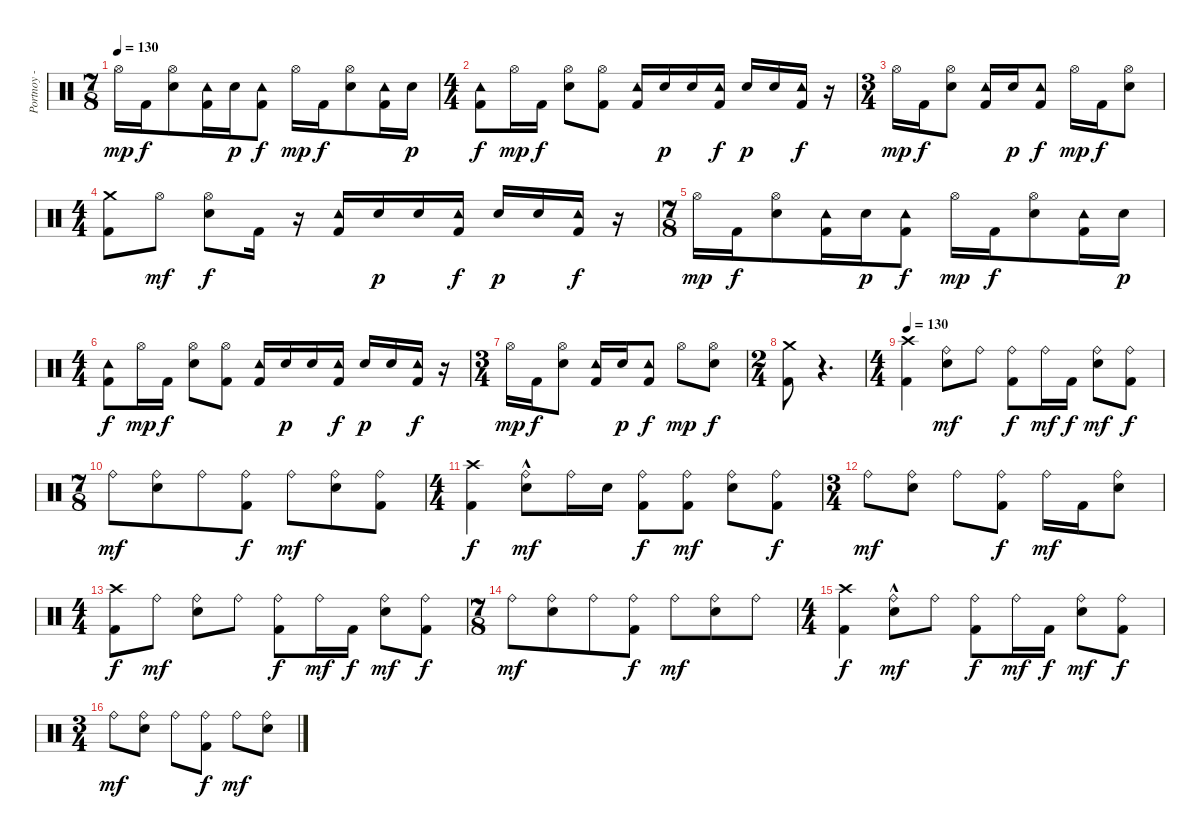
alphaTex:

\track ("Portnoy - Drums" "Portnoy - ") {instrument percussion}
\staff {score}
\articulation defaults
\ts (7 8)
\tempo 130
\clef neutral
\ks c "Hi-Hat (open)".16{dy mp} "Kick (hit) 2".16{dy f}
("Electric Snare (hit)" "Hi-Hat (open)").8 ("Kick (hit) 2" "Tambourine (hit)").16 "Electric Snare (hit)".16{dy p} ("Kick (hit) 2" "Tambourine (hit)").8{dy f} "Hi-Hat (open)".16{dy mp} "Kick (hit) 2".16{dy f} ("Electric Snare (hit)" "Hi-Hat (open)").8 ("Kick (hit) 2" "Tambourine (hit)").16 "Electric Snare (hit)".16{dy p} |
\ts (4 4)
("Kick (hit) 2" "Tambourine (hit)").8{dy f} "Hi-Hat (open)".16{dy mp} "Kick (hit) 2".16{dy f} ("Electric Snare (hit)" "Hi-Hat (open)").8 ("Kick (hit) 2" "Hi-Hat (open)").8 ("Kick (hit) 2" "Tambourine (hit)").16 "Electric Snare (hit)".16{dy p} "Electric Snare (hit)".16 ("Kick (hit) 2" "Tambourine (hit)").16{dy f} "Electric Snare (hit)".16{dy p} "Electric Snare (hit)".16 ("Kick (hit) 2" "Tambourine (hit)").16{dy f} r.16 |
\ts (3 4)
"Hi-Hat (open)".16{dy mp} "Kick (hit) 2".16{dy f} ("Electric Snare (hit)" "Hi-Hat (open)").8 ("Kick (hit) 2" "Tambourine (hit)").16 "Electric Snare (hit)".16{dy p} ("Kick (hit) 2" "Tambourine (hit)").8{dy f} "Hi-Hat (open)".16{dy mp} "Kick (hit) 2".16{dy f} ("Electric Snare (hit)" "Hi-Hat (open)").8 |
\ts (4 4)
("Crash medium (hit)" "Kick (hit) 2").8 "Hi-Hat (open)".8{dy mf} ("Electric Snare (hit)" "Hi-Hat (open)").8{dy f} "Kick (hit) 2".16 r.16 ("Kick (hit) 2" "Tambourine (hit)").16 "Electric Snare (hit)".16{dy p} "Electric Snare (hit)".16 ("Kick (hit) 2" "Tambourine (hit)").16{dy f} "Electric Snare (hit)".16{dy p} "Electric Snare (hit)".16 ("Kick (hit) 2" "Tambourine (hit)").16{dy f} r.16 |
\ts (7 8)
"Hi-Hat (open)".16{dy mp} "Kick (hit) 2".16{dy f} ("Electric Snare (hit)" "Hi-Hat (open)").8 ("Kick (hit) 2" "Tambourine (hit)").16 "Electric Snare (hit)".16{dy p} ("Kick (hit) 2" "Tambourine (hit)").8{dy f} "Hi-Hat (open)".16{dy mp} "Kick (hit) 2".16{dy f} ("Electric Snare (hit)" "Hi-Hat (open)").8 ("Kick (hit) 2" "Tambourine (hit)").16 "Electric Snare (hit)".16{dy p} |
\ts (4 4)
("Kick (hit) 2" "Tambourine (hit)").8{dy f} "Hi-Hat (open)".16{dy mp} "Kick (hit) 2".16{dy f} ("Electric Snare (hit)" "Hi-Hat (open)").8 ("Kick (hit) 2" "Hi-Hat (open)").8 ("Kick (hit) 2" "Tambourine (hit)").16 "Electric Snare (hit)".16{dy p} "Electric Snare (hit)".16 ("Kick (hit) 2" "Tambourine (hit)").16{dy f} "Electric Snare (hit)".16{dy p} "Electric Snare (hit)".16 ("Kick (hit) 2" "Tambourine (hit)").16{dy f} r.16 |
\ts (3 4)
"Hi-Hat (open)".16{dy mp} "Kick (hit) 2".16{dy f} ("Electric Snare (hit)" "Hi-Hat (open)").8 ("Kick (hit) 2" "Tambourine (hit)").16 "Electric Snare (hit)".16{dy p} ("Kick (hit) 2" "Tambourine (hit)").8{dy f} "Hi-Hat (open)".8{dy mp} ("Electric Snare (hit)" "Hi-Hat (open)").8{dy f} |
\ts (2 4)
("Kick (hit) 2" "Crash medium (hit)").8 r.4{d} |
\ts (4 4)
\tempo 130
("Kick (hit) 2" "Crash high (hit)").4{volume 11} ("Electric Snare (hit)" "Ride (bell)").8{dy mf} "Ride (bell)".8 ("Kick (hit) 2" "Ride (bell)").8{dy f} "Ride (bell)".16{dy mf} "Kick (hit) 2".16{dy f} ("Electric Snare (hit)" "Ride (bell)").8{dy mf} ("Kick (hit) 2" "Ride (bell)").8{dy f} |
\ts (7 8)
"Ride (bell)".8{dy mf} ("Electric Snare (hit)" "Ride (bell)").8 "Ride (bell)".8 ("Kick (hit) 2" "Ride (bell)").8{dy f} "Ride (bell)".8{dy mf} ("Electric Snare (hit)" "Ride (bell)").8 ("Kick (hit) 2" "Ride (bell)").8 |
\ts (4 4)
("Crash high (hit)" "Kick (hit) 2").4{dy f} ("Ride (bell)" "Electric Snare (hit)"{hac}).8{dy mf} "Ride (bell)".16 "Electric Snare (hit)".16 ("Ride (bell)" "Kick (hit) 2").8{dy f} ("Ride (bell)" "Kick (hit) 2").8{dy mf} ("Electric Snare (hit)" "Ride (bell)").8 ("Kick (hit) 2" "Ride (bell)").8{dy f} |
\ts (3 4)
"Ride (bell)".8{dy mf} ("Electric Snare (hit)" "Ride (bell)").8 "Ride (bell)".8 ("Kick (hit) 2" "Ride (bell)").8{dy f} "Ride (bell)".16{dy mf} "Kick (hit) 2".16 ("Electric Snare (hit)" "Ride (bell)").8 |
\ts (4 4)
("Crash high (hit)" "Kick (hit) 2").8{dy f} "Ride (bell)".8{dy mf} ("Electric Snare (hit)" "Ride (bell)").8 "Ride (bell)".8 ("Kick (hit) 2" "Ride (bell)").8{dy f} "Ride (bell)".16{dy mf} "Kick (hit) 2".16{dy f} ("Electric Snare (hit)" "Ride (bell)").8{dy mf} ("Kick (hit) 2" "Ride (bell)").8{dy f} |
\ts (7 8)
"Ride (bell)".8{dy mf} ("Electric Snare (hit)" "Ride (bell)").8 "Ride (bell)".8 ("Kick (hit) 2" "Ride (bell)").8{dy f} "Ride (bell)".8{dy mf} ("Electric Snare (hit)" "Ride (bell)").8 "Ride (bell)".8 |
\ts (4 4)
("Crash high (hit)" "Kick (hit) 2").4{dy f} ("Ride (bell)" "Electric Snare (hit)"{hac}).8{dy mf} "Ride (bell)".8 ("Ride (bell)" "Kick (hit) 2").8{dy f} "Ride (bell)".16{dy mf} "Kick (hit) 2".16{dy f} ("Electric Snare (hit)" "Ride (bell)").8{dy mf} ("Kick (hit) 2" "Ride (bell)").8{dy f} |
\ts (3 4)
"Ride (bell)".8{dy mf} ("Electric Snare (hit)" "Ride (bell)").8 "Ride (bell)".8 ("Kick (hit) 2" "Ride (bell)").8{dy f} "Ride (bell)".8{dy mf} ("Electric Snare (hit)" "Ride (bell)").8
